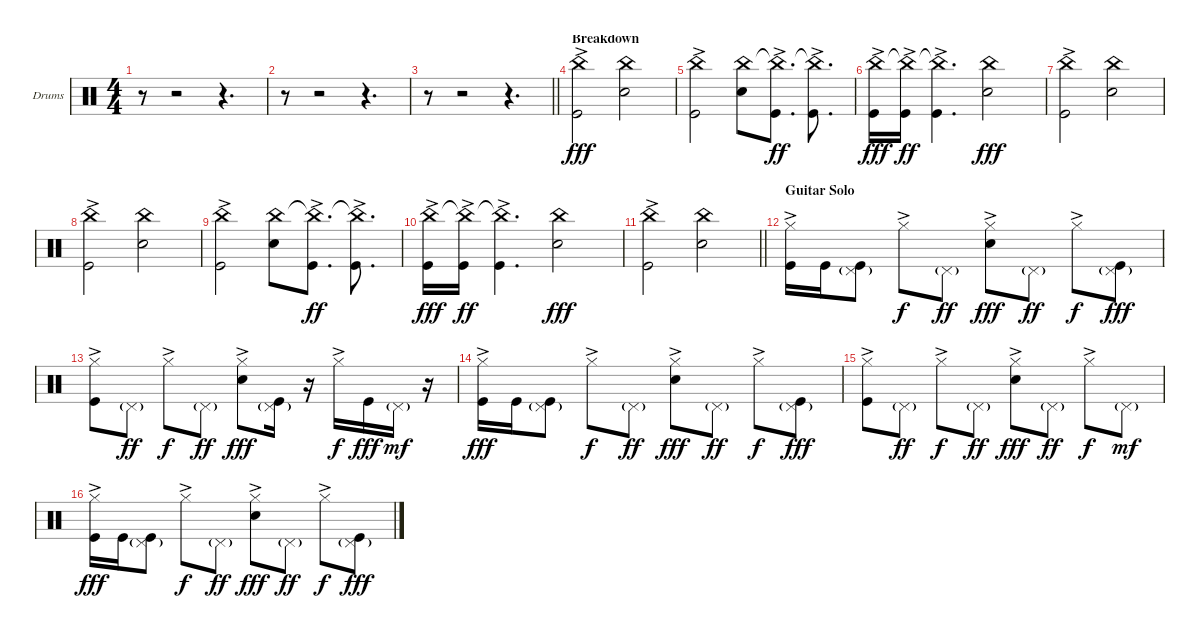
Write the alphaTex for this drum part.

\bracketExtendMode groupsimilarinstruments
\firstSystemTrackNameOrientation horizontal
\otherSystemsTrackNameOrientation horizontal
\track ("Percussion" "Drums") {instrument percussion}
\staff {score}
\articulation defaults
\ts (4 4)
\tempo (142 hide)
\clef neutral
\ks c
r.8{dy fff} r.2 r.4{d} |
r.8 r.2 r.4{d} |
\barLineRight lightlight
r.8 r.2 r.4{d} |
\section ("" "Breakdown")
("Kick (hit)"{ac} "China (hit)").2 ("Snare (hit) 2" "China (hit)").2 |
("Kick (hit)"{ac} "China (hit)").2 ("Snare (hit) 2" "China (hit)").8 ("Kick (hit)"{ac} "China (hit)"{t}).8{d dy ff} ("Kick (hit)"{ac} "China (hit)"{t}).8{d} |
("Kick (hit)"{ac} "China (hit)").16{dy fff} ("Kick (hit)"{ac} "China (hit)"{t}).16{dy ff} ("Kick (hit)"{ac} "China (hit)"{t}).4{d} ("Snare (hit) 2" "China (hit)").2{dy fff} |
("Kick (hit)"{ac} "China (hit)").2 ("Snare (hit) 2" "China (hit)").2 |
("Kick (hit)"{ac} "China (hit)").2 ("Snare (hit) 2" "China (hit)").2 |
("Kick (hit)"{ac} "China (hit)").2 ("Snare (hit) 2" "China (hit)").8 ("Kick (hit)"{ac} "China (hit)"{t}).8{d dy ff} ("Kick (hit)"{ac} "China (hit)"{t}).8{d} |
("Kick (hit)"{ac} "China (hit)").16{dy fff} ("Kick (hit)"{ac} "China (hit)"{t}).16{dy ff} ("Kick (hit)"{ac} "China (hit)"{t}).4{d} ("Snare (hit) 2" "China (hit)").2{dy fff} |
\barLineRight lightlight
("Kick (hit)"{ac} "China (hit)").2 ("Snare (hit) 2" "China (hit)").2 |
\section ("" "Guitar Solo")
("Hi-Hat (closed)"{ac} "Kick (hit)").16 "Kick (hit)".16 ("Pedal Hi-Hat (hit)"{g} "Kick (hit)").8 "Hi-Hat (closed)"{ac}.8{dy f} "Pedal Hi-Hat (hit)"{g}.8{dy ff} ("Hi-Hat (closed)"{ac} "Snare (hit) 2").8{dy fff} "Pedal Hi-Hat (hit)"{g}.8{dy ff} "Hi-Hat (closed)"{ac}.8{dy f} ("Pedal Hi-Hat (hit)"{g} "Kick (hit)").8{dy fff} |
("Hi-Hat (closed)"{ac} "Kick (hit)").8 "Pedal Hi-Hat (hit)"{g}.8{dy ff} "Hi-Hat (closed)"{ac}.8{dy f} "Pedal Hi-Hat (hit)"{g}.8{dy ff} ("Hi-Hat (closed)"{ac} "Snare (hit) 2").8{dy fff} ("Pedal Hi-Hat (hit)"{g} "Kick (hit)").16 r.16 "Hi-Hat (closed)"{ac}.16{dy f} "Kick (hit)".16{dy fff} "Pedal Hi-Hat (hit)"{g}.16{dy mf} r.16 |
("Hi-Hat (closed)"{ac} "Kick (hit)").16{dy fff} "Kick (hit)".16 ("Pedal Hi-Hat (hit)"{g} "Kick (hit)").8 "Hi-Hat (closed)"{ac}.8{dy f} "Pedal Hi-Hat (hit)"{g}.8{dy ff} ("Hi-Hat (closed)"{ac} "Snare (hit) 2").8{dy fff} "Pedal Hi-Hat (hit)"{g}.8{dy ff} "Hi-Hat (closed)"{ac}.8{dy f} ("Pedal Hi-Hat (hit)"{g} "Kick (hit)").8{dy fff} |
("Hi-Hat (closed)"{ac} "Kick (hit)").8 "Pedal Hi-Hat (hit)"{g}.8{dy ff} "Hi-Hat (closed)"{ac}.8{dy f} "Pedal Hi-Hat (hit)"{g}.8{dy ff} ("Hi-Hat (closed)"{ac} "Snare (hit) 2").8{dy fff} "Pedal Hi-Hat (hit)"{g}.8{dy ff} "Hi-Hat (closed)"{ac}.8{dy f} "Pedal Hi-Hat (hit)"{g}.8{dy mf} |
("Hi-Hat (closed)"{ac} "Kick (hit)").16{dy fff} "Kick (hit)".16 ("Pedal Hi-Hat (hit)"{g} "Kick (hit)").8 "Hi-Hat (closed)"{ac}.8{dy f} "Pedal Hi-Hat (hit)"{g}.8{dy ff} ("Hi-Hat (closed)"{ac} "Snare (hit) 2").8{dy fff} "Pedal Hi-Hat (hit)"{g}.8{dy ff} "Hi-Hat (closed)"{ac}.8{dy f} ("Pedal Hi-Hat (hit)"{g} "Kick (hit)").8{dy fff}
